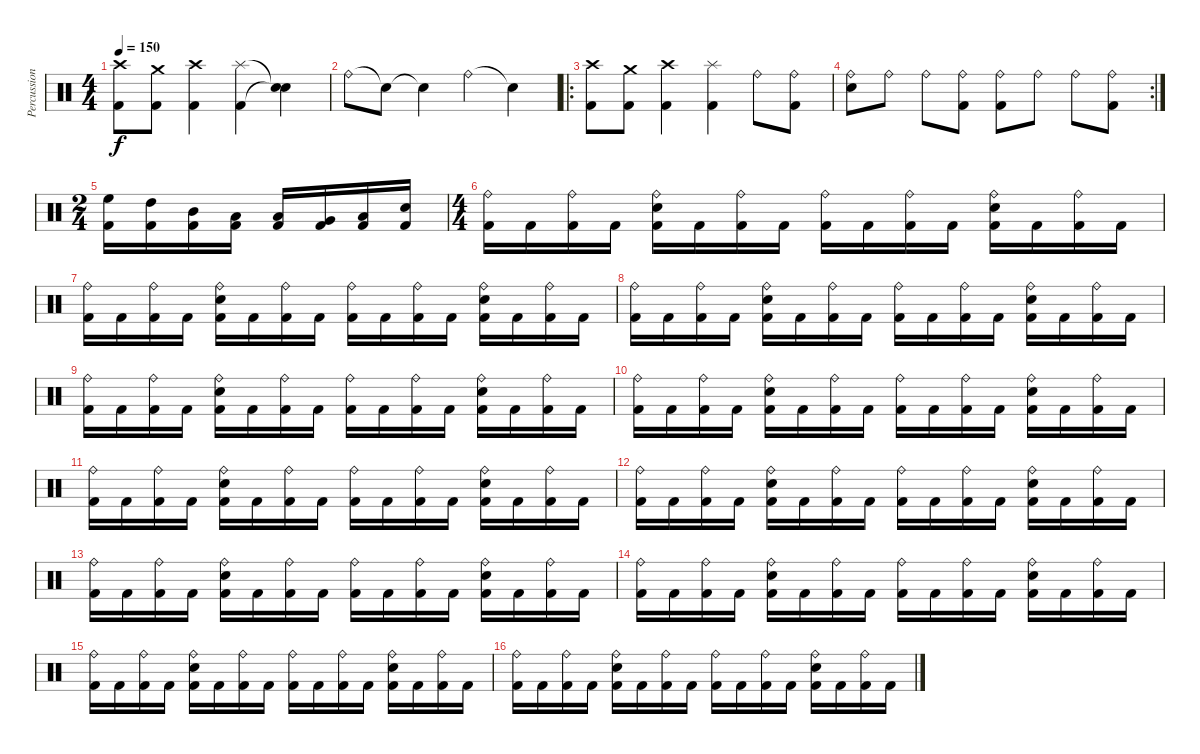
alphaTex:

\track ("Percussion" "Percussion") {instrument percussion}
\staff {score}
\articulation defaults
\ts (4 4)
\tempo 150
\clef neutral
\ks c
("Crash high (hit)" "Kick (hit) 2").8{dy f} ("Crash medium (hit)" "Kick (hit) 2").8 ("Crash high (hit)" "Kick (hit) 2").4 ("Splash (hit)" "Kick (hit) 2").4 ("Snare (hit)"{t} "Snare (hit)"{t}).4 |
"Ride (bell)".8 "Snare (hit)"{t}.8 "Snare (hit)"{t}.4 "Ride (bell)".4 "Snare (hit)"{t}.4 |
\ro
("Crash high (hit)" "Kick (hit) 2").8 ("Crash medium (hit)" "Kick (hit) 2").8 ("Crash high (hit)" "Kick (hit) 2").4 ("Splash (hit)" "Kick (hit) 2").4 "Ride (bell)".8 ("Ride (bell)" "Kick (hit) 2").8 |
\rc 2
("Ride (bell)" "Electric Snare (hit)").8 "Ride (bell)".8 "Ride (bell)".8 ("Ride (bell)" "Kick (hit) 2").8 ("Ride (bell)" "Kick (hit) 2").8 "Ride (bell)".8 "Ride (bell)".8 ("Ride (bell)" "Kick (hit) 2").8 |
\ts (2 4)
("High Floor Tom (hit)" "Kick (hit) 2").16 ("High Tom (hit)" "Kick (hit) 2").16 ("Mid Tom (hit)" "Kick (hit) 2").16 ("Low Tom (hit)" "Kick (hit) 2").16 ("Low Tom (hit)" "Kick (hit) 2").16 ("Very Low Tom (hit)" "Kick (hit) 2").16 ("Low Floor Tom (hit)" "Kick (hit) 2").16 ("Electric Snare (hit)" "Kick (hit) 2").16 |
\ts (4 4)
("Ride (bell)" "Kick (hit) 2").16 "Kick (hit) 2".16 ("Ride (bell)" "Kick (hit) 2").16 "Kick (hit) 2".16 ("Ride (bell)" "Electric Snare (hit)" "Kick (hit) 2").16 "Kick (hit) 2".16 ("Ride (bell)" "Kick (hit) 2").16 "Kick (hit) 2".16 ("Ride (bell)" "Kick (hit) 2").16 "Kick (hit) 2".16 ("Ride (bell)" "Kick (hit) 2").16 "Kick (hit) 2".16 ("Ride (bell)" "Electric Snare (hit)" "Kick (hit) 2").16 "Kick (hit) 2".16 ("Ride (bell)" "Kick (hit) 2").16 "Kick (hit) 2".16 |
("Ride (bell)" "Kick (hit) 2").16 "Kick (hit) 2".16 ("Ride (bell)" "Kick (hit) 2").16 "Kick (hit) 2".16 ("Ride (bell)" "Electric Snare (hit)" "Kick (hit) 2").16 "Kick (hit) 2".16 ("Ride (bell)" "Kick (hit) 2").16 "Kick (hit) 2".16 ("Ride (bell)" "Kick (hit) 2").16 "Kick (hit) 2".16 ("Ride (bell)" "Kick (hit) 2").16 "Kick (hit) 2".16 ("Ride (bell)" "Electric Snare (hit)" "Kick (hit) 2").16 "Kick (hit) 2".16 ("Ride (bell)" "Kick (hit) 2").16 "Kick (hit) 2".16 |
("Ride (bell)" "Kick (hit) 2").16 "Kick (hit) 2".16 ("Ride (bell)" "Kick (hit) 2").16 "Kick (hit) 2".16 ("Ride (bell)" "Electric Snare (hit)" "Kick (hit) 2").16 "Kick (hit) 2".16 ("Ride (bell)" "Kick (hit) 2").16 "Kick (hit) 2".16 ("Ride (bell)" "Kick (hit) 2").16 "Kick (hit) 2".16 ("Ride (bell)" "Kick (hit) 2").16 "Kick (hit) 2".16 ("Ride (bell)" "Electric Snare (hit)" "Kick (hit) 2").16 "Kick (hit) 2".16 ("Ride (bell)" "Kick (hit) 2").16 "Kick (hit) 2".16 |
("Ride (bell)" "Kick (hit) 2").16 "Kick (hit) 2".16 ("Ride (bell)" "Kick (hit) 2").16 "Kick (hit) 2".16 ("Ride (bell)" "Electric Snare (hit)" "Kick (hit) 2").16 "Kick (hit) 2".16 ("Ride (bell)" "Kick (hit) 2").16 "Kick (hit) 2".16 ("Ride (bell)" "Kick (hit) 2").16 "Kick (hit) 2".16 ("Ride (bell)" "Kick (hit) 2").16 "Kick (hit) 2".16 ("Ride (bell)" "Electric Snare (hit)" "Kick (hit) 2").16 "Kick (hit) 2".16 ("Ride (bell)" "Kick (hit) 2").16 "Kick (hit) 2".16 |
("Ride (bell)" "Kick (hit) 2").16 "Kick (hit) 2".16 ("Ride (bell)" "Kick (hit) 2").16 "Kick (hit) 2".16 ("Ride (bell)" "Electric Snare (hit)" "Kick (hit) 2").16 "Kick (hit) 2".16 ("Ride (bell)" "Kick (hit) 2").16 "Kick (hit) 2".16 ("Ride (bell)" "Kick (hit) 2").16 "Kick (hit) 2".16 ("Ride (bell)" "Kick (hit) 2").16 "Kick (hit) 2".16 ("Ride (bell)" "Electric Snare (hit)" "Kick (hit) 2").16 "Kick (hit) 2".16 ("Ride (bell)" "Kick (hit) 2").16 "Kick (hit) 2".16 |
("Ride (bell)" "Kick (hit) 2").16 "Kick (hit) 2".16 ("Ride (bell)" "Kick (hit) 2").16 "Kick (hit) 2".16 ("Ride (bell)" "Electric Snare (hit)" "Kick (hit) 2").16 "Kick (hit) 2".16 ("Ride (bell)" "Kick (hit) 2").16 "Kick (hit) 2".16 ("Ride (bell)" "Kick (hit) 2").16 "Kick (hit) 2".16 ("Ride (bell)" "Kick (hit) 2").16 "Kick (hit) 2".16 ("Ride (bell)" "Electric Snare (hit)" "Kick (hit) 2").16 "Kick (hit) 2".16 ("Ride (bell)" "Kick (hit) 2").16 "Kick (hit) 2".16 |
("Ride (bell)" "Kick (hit) 2").16 "Kick (hit) 2".16 ("Ride (bell)" "Kick (hit) 2").16 "Kick (hit) 2".16 ("Ride (bell)" "Electric Snare (hit)" "Kick (hit) 2").16 "Kick (hit) 2".16 ("Ride (bell)" "Kick (hit) 2").16 "Kick (hit) 2".16 ("Ride (bell)" "Kick (hit) 2").16 "Kick (hit) 2".16 ("Ride (bell)" "Kick (hit) 2").16 "Kick (hit) 2".16 ("Ride (bell)" "Electric Snare (hit)" "Kick (hit) 2").16 "Kick (hit) 2".16 ("Ride (bell)" "Kick (hit) 2").16 "Kick (hit) 2".16 |
("Ride (bell)" "Kick (hit) 2").16 "Kick (hit) 2".16 ("Ride (bell)" "Kick (hit) 2").16 "Kick (hit) 2".16 ("Ride (bell)" "Electric Snare (hit)" "Kick (hit) 2").16 "Kick (hit) 2".16 ("Ride (bell)" "Kick (hit) 2").16 "Kick (hit) 2".16 ("Ride (bell)" "Kick (hit) 2").16 "Kick (hit) 2".16 ("Ride (bell)" "Kick (hit) 2").16 "Kick (hit) 2".16 ("Ride (bell)" "Electric Snare (hit)" "Kick (hit) 2").16 "Kick (hit) 2".16 ("Ride (bell)" "Kick (hit) 2").16 "Kick (hit) 2".16 |
("Ride (bell)" "Kick (hit) 2").16 "Kick (hit) 2".16 ("Ride (bell)" "Kick (hit) 2").16 "Kick (hit) 2".16 ("Ride (bell)" "Electric Snare (hit)" "Kick (hit) 2").16 "Kick (hit) 2".16 ("Ride (bell)" "Kick (hit) 2").16 "Kick (hit) 2".16 ("Ride (bell)" "Kick (hit) 2").16 "Kick (hit) 2".16 ("Ride (bell)" "Kick (hit) 2").16 "Kick (hit) 2".16 ("Ride (bell)" "Electric Snare (hit)" "Kick (hit) 2").16 "Kick (hit) 2".16 ("Ride (bell)" "Kick (hit) 2").16 "Kick (hit) 2".16 |
("Ride (bell)" "Kick (hit) 2").16 "Kick (hit) 2".16 ("Ride (bell)" "Kick (hit) 2").16 "Kick (hit) 2".16 ("Ride (bell)" "Electric Snare (hit)" "Kick (hit) 2").16 "Kick (hit) 2".16 ("Ride (bell)" "Kick (hit) 2").16 "Kick (hit) 2".16 ("Ride (bell)" "Kick (hit) 2").16 "Kick (hit) 2".16 ("Ride (bell)" "Kick (hit) 2").16 "Kick (hit) 2".16 ("Ride (bell)" "Electric Snare (hit)" "Kick (hit) 2").16 "Kick (hit) 2".16 ("Ride (bell)" "Kick (hit) 2").16 "Kick (hit) 2".16 |
("Ride (bell)" "Kick (hit) 2").16 "Kick (hit) 2".16 ("Ride (bell)" "Kick (hit) 2").16 "Kick (hit) 2".16 ("Ride (bell)" "Electric Snare (hit)" "Kick (hit) 2").16 "Kick (hit) 2".16 ("Ride (bell)" "Kick (hit) 2").16 "Kick (hit) 2".16 ("Ride (bell)" "Kick (hit) 2").16 "Kick (hit) 2".16 ("Ride (bell)" "Kick (hit) 2").16 "Kick (hit) 2".16 ("Ride (bell)" "Electric Snare (hit)" "Kick (hit) 2").16 "Kick (hit) 2".16 ("Ride (bell)" "Kick (hit) 2").16 "Kick (hit) 2".16
